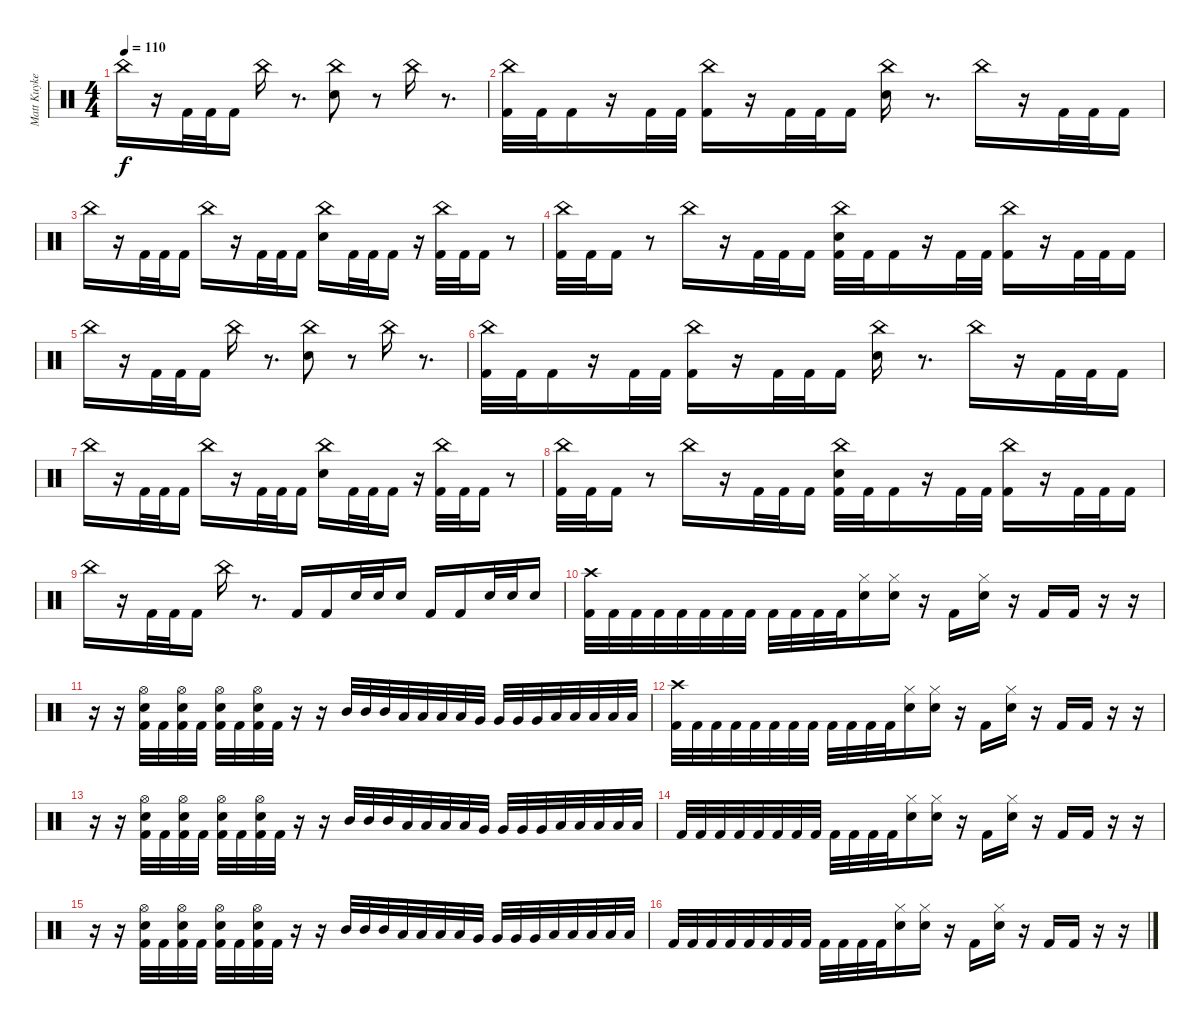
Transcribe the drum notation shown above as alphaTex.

\track ("Matt Kuykendall (Drums)" "Matt Kuyke") {instrument percussion}
\staff {score}
\articulation defaults
\ts (4 4)
\tempo 110
\clef neutral
\ks c "China (hit)".16{dy f}
r.16 "Kick (hit) 2".32 "Kick (hit) 2".32 "Kick (hit) 2".16 "China (hit)".16 r.8{d} ("China (hit)" "Snare (hit) 2").8 r.8 "China (hit)".16 r.8{d} |
("China (hit)" "Kick (hit) 2").32 "Kick (hit) 2".32 "Kick (hit) 2".16 r.16 "Kick (hit) 2".32 "Kick (hit) 2".32 ("China (hit)" "Kick (hit) 2").16 r.16 "Kick (hit) 2".32 "Kick (hit) 2".32 "Kick (hit) 2".16 ("China (hit)" "Snare (hit) 2").16 r.8{d} "China (hit)".16 r.16 "Kick (hit) 2".32 "Kick (hit) 2".32 "Kick (hit) 2".16 |
"China (hit)".16 r.16 "Kick (hit) 2".32 "Kick (hit) 2".32 "Kick (hit) 2".16 "China (hit)".16 r.16 "Kick (hit) 2".32 "Kick (hit) 2".32 "Kick (hit) 2".16 ("China (hit)" "Snare (hit) 2").16 "Kick (hit) 2".32 "Kick (hit) 2".32 "Kick (hit) 2".16 r.16 ("China (hit)" "Kick (hit) 2").32 "Kick (hit) 2".32 "Kick (hit) 2".16 r.8 |
("China (hit)" "Kick (hit) 2").32 "Kick (hit) 2".32 "Kick (hit) 2".16 r.8 "China (hit)".16 r.16 "Kick (hit) 2".32 "Kick (hit) 2".32 "Kick (hit) 2".16 ("China (hit)" "Snare (hit) 2" "Kick (hit) 2").32 "Kick (hit) 2".32 "Kick (hit) 2".16 r.16 "Kick (hit) 2".32 "Kick (hit) 2".32 ("China (hit)" "Kick (hit) 2").16 r.16 "Kick (hit) 2".32 "Kick (hit) 2".32 "Kick (hit) 2".16 |
"China (hit)".16 r.16 "Kick (hit) 2".32 "Kick (hit) 2".32 "Kick (hit) 2".16 "China (hit)".16 r.8{d} ("China (hit)" "Snare (hit) 2").8 r.8 "China (hit)".16 r.8{d} |
("China (hit)" "Kick (hit) 2").32 "Kick (hit) 2".32 "Kick (hit) 2".16 r.16 "Kick (hit) 2".32 "Kick (hit) 2".32 ("China (hit)" "Kick (hit) 2").16 r.16 "Kick (hit) 2".32 "Kick (hit) 2".32 "Kick (hit) 2".16 ("China (hit)" "Snare (hit) 2").16 r.8{d} "China (hit)".16 r.16 "Kick (hit) 2".32 "Kick (hit) 2".32 "Kick (hit) 2".16 |
"China (hit)".16 r.16 "Kick (hit) 2".32 "Kick (hit) 2".32 "Kick (hit) 2".16 "China (hit)".16 r.16 "Kick (hit) 2".32 "Kick (hit) 2".32 "Kick (hit) 2".16 ("China (hit)" "Snare (hit) 2").16 "Kick (hit) 2".32 "Kick (hit) 2".32 "Kick (hit) 2".16 r.16 ("China (hit)" "Kick (hit) 2").32 "Kick (hit) 2".32 "Kick (hit) 2".16 r.8 |
("China (hit)" "Kick (hit) 2").32 "Kick (hit) 2".32 "Kick (hit) 2".16 r.8 "China (hit)".16 r.16 "Kick (hit) 2".32 "Kick (hit) 2".32 "Kick (hit) 2".16 ("China (hit)" "Snare (hit) 2" "Kick (hit) 2").32 "Kick (hit) 2".32 "Kick (hit) 2".16 r.16 "Kick (hit) 2".32 "Kick (hit) 2".32 ("China (hit)" "Kick (hit) 2").16 r.16 "Kick (hit) 2".32 "Kick (hit) 2".32 "Kick (hit) 2".16 |
"China (hit)".16 r.16 "Kick (hit) 2".32 "Kick (hit) 2".32 "Kick (hit) 2".16 "China (hit)".16 r.8{d} "Kick (hit) 2".16 "Kick (hit) 2".16 "Snare (hit) 2".32 "Snare (hit) 2".32 "Snare (hit) 2".16 "Kick (hit) 2".16 "Kick (hit) 2".16 "Snare (hit) 2".32 "Snare (hit) 2".32 "Snare (hit) 2".16 |
("Crash high (hit)" "Kick (hit) 2").32 "Kick (hit) 2".32 "Kick (hit) 2".32 "Kick (hit) 2".32 "Kick (hit) 2".32 "Kick (hit) 2".32 "Kick (hit) 2".32 "Kick (hit) 2".32 "Kick (hit) 2".32 "Kick (hit) 2".32 "Kick (hit) 2".32 "Kick (hit) 2".32 ("Hi-Hat (closed)" "Snare (hit) 2").16 ("Hi-Hat (closed)" "Snare (hit) 2").16 r.16 "Kick (hit) 2".16 ("Hi-Hat (closed)" "Snare (hit) 2").16 r.16 "Kick (hit) 2".16 "Kick (hit) 2".16 r.16 r.16 |
r.16 r.16 ("Hi-Hat (open)" "Snare (hit) 2" "Kick (hit) 2").32 "Kick (hit) 2".32 ("Hi-Hat (open)" "Snare (hit) 2" "Kick (hit) 2").32 "Kick (hit) 2".32 ("Hi-Hat (open)" "Snare (hit) 2" "Kick (hit) 2").32 "Kick (hit) 2".32 ("Hi-Hat (open)" "Snare (hit) 2" "Kick (hit) 2").32 "Kick (hit) 2".32 r.16 r.16 "Mid Tom (hit)".32 "Mid Tom (hit)".32 "Mid Tom (hit)".32 "Low Tom (hit)".32 "Low Tom (hit)".32 "Low Tom (hit)".32 "Low Tom (hit)".32 "Very Low Tom (hit)".32 "Very Low Tom (hit)".32 "Very Low Tom (hit)".32 "Very Low Tom (hit)".32 "Low Floor Tom (hit)".32 "Low Floor Tom (hit)".32 "Low Floor Tom (hit)".32 "Low Floor Tom (hit)".32 "Low Floor Tom (hit)".32 |
("Crash high (hit)" "Kick (hit) 2").32 "Kick (hit) 2".32 "Kick (hit) 2".32 "Kick (hit) 2".32 "Kick (hit) 2".32 "Kick (hit) 2".32 "Kick (hit) 2".32 "Kick (hit) 2".32 "Kick (hit) 2".32 "Kick (hit) 2".32 "Kick (hit) 2".32 "Kick (hit) 2".32 ("Hi-Hat (closed)" "Snare (hit) 2").16 ("Hi-Hat (closed)" "Snare (hit) 2").16 r.16 "Kick (hit) 2".16 ("Hi-Hat (closed)" "Snare (hit) 2").16 r.16 "Kick (hit) 2".16 "Kick (hit) 2".16 r.16 r.16 |
r.16 r.16 ("Hi-Hat (open)" "Snare (hit) 2" "Kick (hit) 2").32 "Kick (hit) 2".32 ("Hi-Hat (open)" "Snare (hit) 2" "Kick (hit) 2").32 "Kick (hit) 2".32 ("Hi-Hat (open)" "Snare (hit) 2" "Kick (hit) 2").32 "Kick (hit) 2".32 ("Hi-Hat (open)" "Snare (hit) 2" "Kick (hit) 2").32 "Kick (hit) 2".32 r.16 r.16 "Mid Tom (hit)".32 "Mid Tom (hit)".32 "Mid Tom (hit)".32 "Low Tom (hit)".32 "Low Tom (hit)".32 "Low Tom (hit)".32 "Low Tom (hit)".32 "Very Low Tom (hit)".32 "Very Low Tom (hit)".32 "Very Low Tom (hit)".32 "Very Low Tom (hit)".32 "Low Floor Tom (hit)".32 "Low Floor Tom (hit)".32 "Low Floor Tom (hit)".32 "Low Floor Tom (hit)".32 "Low Floor Tom (hit)".32 |
"Kick (hit) 2".32 "Kick (hit) 2".32 "Kick (hit) 2".32 "Kick (hit) 2".32 "Kick (hit) 2".32 "Kick (hit) 2".32 "Kick (hit) 2".32 "Kick (hit) 2".32 "Kick (hit) 2".32 "Kick (hit) 2".32 "Kick (hit) 2".32 "Kick (hit) 2".32 ("Hi-Hat (closed)" "Snare (hit) 2").16 ("Hi-Hat (closed)" "Snare (hit) 2").16 r.16 "Kick (hit) 2".16 ("Hi-Hat (closed)" "Snare (hit) 2").16 r.16 "Kick (hit) 2".16 "Kick (hit) 2".16 r.16 r.16 |
r.16 r.16 ("Hi-Hat (open)" "Snare (hit) 2" "Kick (hit) 2").32 "Kick (hit) 2".32 ("Hi-Hat (open)" "Snare (hit) 2" "Kick (hit) 2").32 "Kick (hit) 2".32 ("Hi-Hat (open)" "Snare (hit) 2" "Kick (hit) 2").32 "Kick (hit) 2".32 ("Hi-Hat (open)" "Snare (hit) 2" "Kick (hit) 2").32 "Kick (hit) 2".32 r.16 r.16 "Mid Tom (hit)".32 "Mid Tom (hit)".32 "Mid Tom (hit)".32 "Low Tom (hit)".32 "Low Tom (hit)".32 "Low Tom (hit)".32 "Low Tom (hit)".32 "Very Low Tom (hit)".32 "Very Low Tom (hit)".32 "Very Low Tom (hit)".32 "Very Low Tom (hit)".32 "Low Floor Tom (hit)".32 "Low Floor Tom (hit)".32 "Low Floor Tom (hit)".32 "Low Floor Tom (hit)".32 "Low Floor Tom (hit)".32 |
"Kick (hit) 2".32 "Kick (hit) 2".32 "Kick (hit) 2".32 "Kick (hit) 2".32 "Kick (hit) 2".32 "Kick (hit) 2".32 "Kick (hit) 2".32 "Kick (hit) 2".32 "Kick (hit) 2".32 "Kick (hit) 2".32 "Kick (hit) 2".32 "Kick (hit) 2".32 ("Hi-Hat (closed)" "Snare (hit) 2").16 ("Hi-Hat (closed)" "Snare (hit) 2").16 r.16 "Kick (hit) 2".16 ("Hi-Hat (closed)" "Snare (hit) 2").16 r.16 "Kick (hit) 2".16 "Kick (hit) 2".16 r.16 r.16
